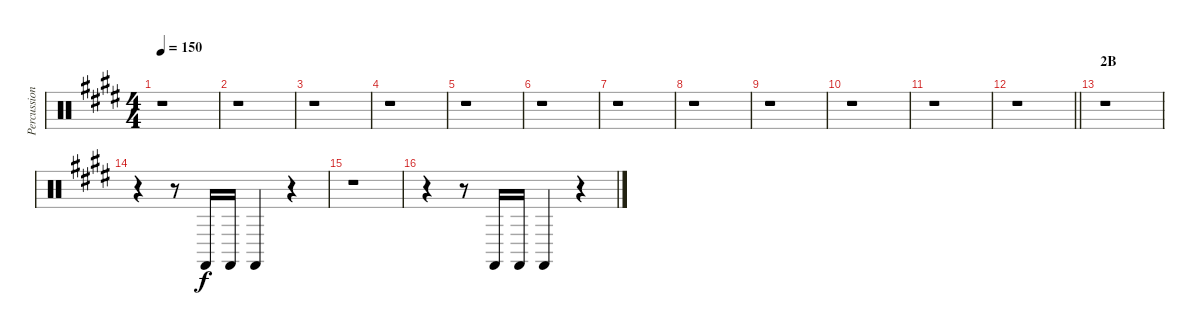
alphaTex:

\track ("Percussion" "Percussion") {instrument percussion}
\staff {score}
\articulation defaults
\ts (4 4)
\tempo 150
\clef neutral
\ks e
r.1{dy f} |
r.1 |
r.1 |
r.1 |
r.1 |
r.1 |
r.1 |
r.1 |
r.1 |
r.1 |
r.1 |
\barLineRight lightlight
r.1 |
\section ("" "2B")
r.1 |
r.4 r.8 "Castanets (hit)".16 "Castanets (hit)".16 "Castanets (hit)".4 r.4 |
r.1 |
r.4 r.8 "Castanets (hit)".16 "Castanets (hit)".16 "Castanets (hit)".4 r.4
